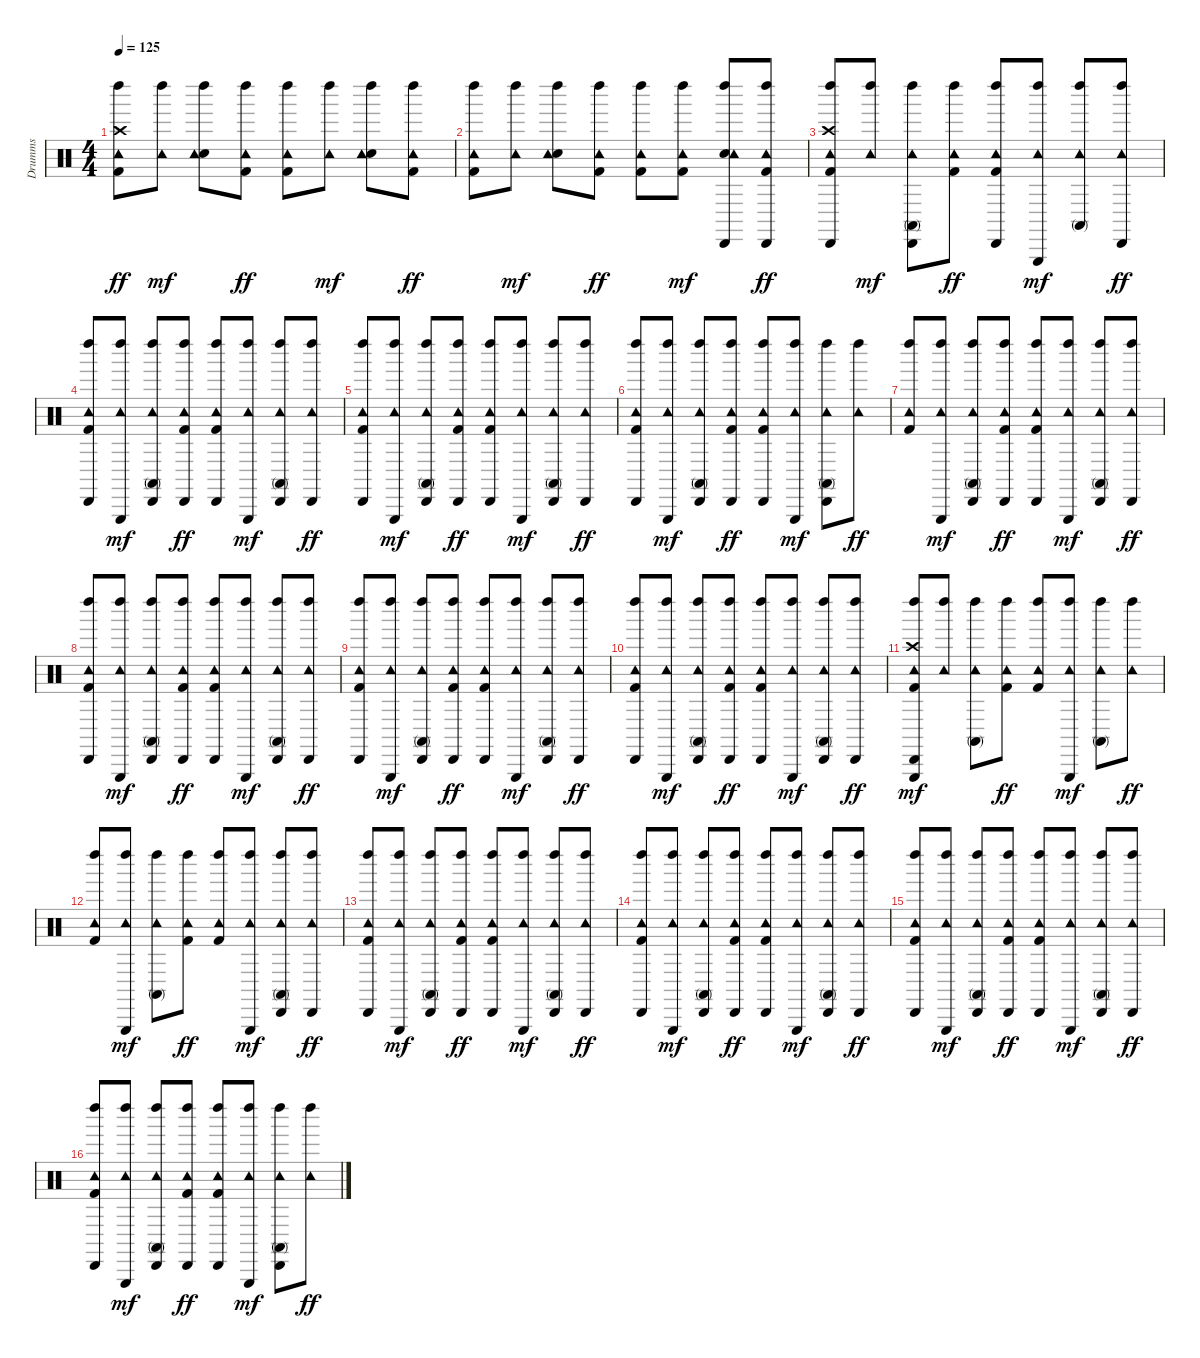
\track ("Drumms" "Drumms") {instrument percussion}
\staff {score}
\articulation defaults
\ts (4 4)
\tempo 125
\clef neutral
\ks c
("Kick (hit) 2" "Crash high (hit)" "Tambourine (hit)" "Left Maraca (hit)").8{dy ff} ("Tambourine (hit)" "Left Maraca (hit)").8{dy mf} ("Snare (hit) 2" "Tambourine (hit)" "Left Maraca (hit)").8 ("Kick (hit) 2" "Tambourine (hit)" "Left Maraca (hit)").8{dy ff} ("Kick (hit) 2" "Tambourine (hit)" "Left Maraca (hit)").8 ("Tambourine (hit)" "Left Maraca (hit)").8{dy mf} ("Snare (hit) 2" "Tambourine (hit)" "Left Maraca (hit)").8 ("Kick (hit) 2" "Tambourine (hit)" "Left Maraca (hit)").8{dy ff} |
("Kick (hit) 2" "Tambourine (hit)" "Left Maraca (hit)").8 ("Tambourine (hit)" "Left Maraca (hit)").8{dy mf} ("Snare (hit) 2" "Tambourine (hit)" "Left Maraca (hit)").8 ("Kick (hit) 2" "Tambourine (hit)" "Left Maraca (hit)").8{dy ff} ("Kick (hit) 2" "Tambourine (hit)" "Left Maraca (hit)").8 ("Kick (hit) 2" "Tambourine (hit)" "Left Maraca (hit)").8{dy mf} ("Snare (hit) 2" "Tambourine (hit)" "Cabasa (hit)" "Left Maraca (hit)").8 ("Kick (hit) 2" "Tambourine (hit)" "Cabasa (hit)" "Left Maraca (hit)").8{dy ff} |
("Kick (hit) 2" "Crash high (hit)" "Tambourine (hit)" "Cabasa (hit)" "Left Maraca (hit)").8 ("Tambourine (hit)" "Left Maraca (hit)").8{dy mf} ("Conga high (mute)" "Tambourine (hit)" "Cabasa (hit)" "Left Maraca (hit)").8 ("Kick (hit) 2" "Tambourine (hit)" "Left Maraca (hit)").8{dy ff} ("Kick (hit) 2" "Tambourine (hit)" "Cabasa (hit)" "Left Maraca (hit)").8 ("Tambourine (hit)" "Left Maraca (hit)" "Triangle (hit)").8{dy mf} ("Conga high (mute)" "Tambourine (hit)" "Left Maraca (hit)").8 ("Tambourine (hit)" "Cabasa (hit)" "Left Maraca (hit)").8{dy ff} |
("Kick (hit) 2" "Tambourine (hit)" "Cabasa (hit)" "Left Maraca (hit)").8 ("Tambourine (hit)" "Left Maraca (hit)" "Triangle (hit)").8{dy mf} ("Conga high (mute)" "Tambourine (hit)" "Cabasa (hit)" "Left Maraca (hit)").8 ("Kick (hit) 2" "Tambourine (hit)" "Cabasa (hit)" "Left Maraca (hit)").8{dy ff} ("Kick (hit) 2" "Tambourine (hit)" "Cabasa (hit)" "Left Maraca (hit)").8 ("Tambourine (hit)" "Left Maraca (hit)" "Triangle (hit)").8{dy mf} ("Conga high (mute)" "Tambourine (hit)" "Cabasa (hit)" "Left Maraca (hit)").8 ("Tambourine (hit)" "Cabasa (hit)" "Left Maraca (hit)").8{dy ff} |
("Kick (hit) 2" "Tambourine (hit)" "Cabasa (hit)" "Left Maraca (hit)").8 ("Tambourine (hit)" "Left Maraca (hit)" "Triangle (hit)").8{dy mf} ("Conga high (mute)" "Tambourine (hit)" "Cabasa (hit)" "Left Maraca (hit)").8 ("Kick (hit) 2" "Tambourine (hit)" "Cabasa (hit)" "Left Maraca (hit)").8{dy ff} ("Kick (hit) 2" "Tambourine (hit)" "Cabasa (hit)" "Left Maraca (hit)").8 ("Tambourine (hit)" "Left Maraca (hit)" "Triangle (hit)").8{dy mf} ("Conga high (mute)" "Tambourine (hit)" "Cabasa (hit)" "Left Maraca (hit)").8 ("Tambourine (hit)" "Cabasa (hit)" "Left Maraca (hit)").8{dy ff} |
("Kick (hit) 2" "Tambourine (hit)" "Cabasa (hit)" "Left Maraca (hit)").8 ("Tambourine (hit)" "Left Maraca (hit)" "Triangle (hit)").8{dy mf} ("Conga high (mute)" "Tambourine (hit)" "Cabasa (hit)" "Left Maraca (hit)").8 ("Kick (hit) 2" "Tambourine (hit)" "Cabasa (hit)" "Left Maraca (hit)").8{dy ff} ("Kick (hit) 2" "Tambourine (hit)" "Cabasa (hit)" "Left Maraca (hit)").8 ("Tambourine (hit)" "Left Maraca (hit)" "Triangle (hit)").8{dy mf} ("Conga high (mute)" "Tambourine (hit)" "Cabasa (hit)" "Left Maraca (hit)").8 ("Tambourine (hit)" "Left Maraca (hit)").8{dy ff} |
("Kick (hit) 2" "Tambourine (hit)" "Left Maraca (hit)").8 ("Tambourine (hit)" "Left Maraca (hit)" "Triangle (hit)").8{dy mf} ("Conga high (mute)" "Tambourine (hit)" "Cabasa (hit)" "Left Maraca (hit)").8 ("Kick (hit) 2" "Tambourine (hit)" "Cabasa (hit)" "Left Maraca (hit)").8{dy ff} ("Kick (hit) 2" "Tambourine (hit)" "Cabasa (hit)" "Left Maraca (hit)").8 ("Tambourine (hit)" "Left Maraca (hit)" "Triangle (hit)").8{dy mf} ("Conga high (mute)" "Tambourine (hit)" "Cabasa (hit)" "Left Maraca (hit)").8 ("Tambourine (hit)" "Cabasa (hit)" "Left Maraca (hit)").8{dy ff} |
("Kick (hit) 2" "Tambourine (hit)" "Cabasa (hit)" "Left Maraca (hit)").8 ("Tambourine (hit)" "Left Maraca (hit)" "Triangle (hit)").8{dy mf} ("Conga high (mute)" "Tambourine (hit)" "Cabasa (hit)" "Left Maraca (hit)").8 ("Kick (hit) 2" "Tambourine (hit)" "Cabasa (hit)" "Left Maraca (hit)").8{dy ff} ("Kick (hit) 2" "Tambourine (hit)" "Cabasa (hit)" "Left Maraca (hit)").8 ("Tambourine (hit)" "Left Maraca (hit)" "Triangle (hit)").8{dy mf} ("Conga high (mute)" "Tambourine (hit)" "Cabasa (hit)" "Left Maraca (hit)").8 ("Tambourine (hit)" "Cabasa (hit)" "Left Maraca (hit)").8{dy ff} |
("Kick (hit) 2" "Tambourine (hit)" "Cabasa (hit)" "Left Maraca (hit)").8 ("Tambourine (hit)" "Left Maraca (hit)" "Triangle (hit)").8{dy mf} ("Conga high (mute)" "Tambourine (hit)" "Cabasa (hit)" "Left Maraca (hit)").8 ("Kick (hit) 2" "Tambourine (hit)" "Cabasa (hit)" "Left Maraca (hit)").8{dy ff} ("Kick (hit) 2" "Tambourine (hit)" "Cabasa (hit)" "Left Maraca (hit)").8 ("Tambourine (hit)" "Left Maraca (hit)" "Triangle (hit)").8{dy mf} ("Conga high (mute)" "Tambourine (hit)" "Cabasa (hit)" "Left Maraca (hit)").8 ("Tambourine (hit)" "Cabasa (hit)" "Left Maraca (hit)").8{dy ff} |
("Kick (hit) 2" "Tambourine (hit)" "Cabasa (hit)" "Left Maraca (hit)").8 ("Tambourine (hit)" "Left Maraca (hit)" "Triangle (hit)").8{dy mf} ("Conga high (mute)" "Tambourine (hit)" "Cabasa (hit)" "Left Maraca (hit)").8 ("Kick (hit) 2" "Tambourine (hit)" "Cabasa (hit)" "Left Maraca (hit)").8{dy ff} ("Kick (hit) 2" "Tambourine (hit)" "Cabasa (hit)" "Left Maraca (hit)").8 ("Tambourine (hit)" "Left Maraca (hit)" "Triangle (hit)").8{dy mf} ("Conga high (mute)" "Tambourine (hit)" "Cabasa (hit)" "Left Maraca (hit)").8 ("Tambourine (hit)" "Cabasa (hit)" "Left Maraca (hit)").8{dy ff} |
("Kick (hit) 2" "Crash high (hit)" "Tambourine (hit)" "Cabasa (hit)" "Left Maraca (hit)" "Triangle (hit)").8{dy mf} ("Tambourine (hit)" "Left Maraca (hit)").8 ("Conga high (mute)" "Tambourine (hit)" "Left Maraca (hit)").8 ("Kick (hit) 2" "Tambourine (hit)" "Left Maraca (hit)").8{dy ff} ("Kick (hit) 2" "Tambourine (hit)" "Left Maraca (hit)").8 ("Tambourine (hit)" "Left Maraca (hit)" "Triangle (hit)").8{dy mf} ("Conga high (mute)" "Tambourine (hit)" "Left Maraca (hit)").8 ("Tambourine (hit)" "Left Maraca (hit)").8{dy ff} |
("Kick (hit) 2" "Tambourine (hit)" "Left Maraca (hit)").8 ("Tambourine (hit)" "Left Maraca (hit)" "Triangle (hit)").8{dy mf} ("Conga high (mute)" "Tambourine (hit)" "Left Maraca (hit)").8 ("Kick (hit) 2" "Tambourine (hit)" "Left Maraca (hit)").8{dy ff} ("Kick (hit) 2" "Tambourine (hit)" "Left Maraca (hit)").8 ("Tambourine (hit)" "Left Maraca (hit)" "Triangle (hit)").8{dy mf} ("Conga high (mute)" "Tambourine (hit)" "Cabasa (hit)" "Left Maraca (hit)").8 ("Tambourine (hit)" "Cabasa (hit)" "Left Maraca (hit)").8{dy ff} |
("Kick (hit) 2" "Tambourine (hit)" "Cabasa (hit)" "Left Maraca (hit)").8 ("Tambourine (hit)" "Left Maraca (hit)" "Triangle (hit)").8{dy mf} ("Conga high (mute)" "Tambourine (hit)" "Cabasa (hit)" "Left Maraca (hit)").8 ("Kick (hit) 2" "Tambourine (hit)" "Cabasa (hit)" "Left Maraca (hit)").8{dy ff} ("Kick (hit) 2" "Tambourine (hit)" "Cabasa (hit)" "Left Maraca (hit)").8 ("Tambourine (hit)" "Left Maraca (hit)" "Triangle (hit)").8{dy mf} ("Conga high (mute)" "Tambourine (hit)" "Cabasa (hit)" "Left Maraca (hit)").8 ("Tambourine (hit)" "Cabasa (hit)" "Left Maraca (hit)").8{dy ff} |
("Kick (hit) 2" "Tambourine (hit)" "Cabasa (hit)" "Left Maraca (hit)").8 ("Tambourine (hit)" "Left Maraca (hit)" "Triangle (hit)").8{dy mf} ("Conga high (mute)" "Tambourine (hit)" "Cabasa (hit)" "Left Maraca (hit)").8 ("Kick (hit) 2" "Tambourine (hit)" "Cabasa (hit)" "Left Maraca (hit)").8{dy ff} ("Kick (hit) 2" "Tambourine (hit)" "Cabasa (hit)" "Left Maraca (hit)").8 ("Tambourine (hit)" "Left Maraca (hit)" "Triangle (hit)").8{dy mf} ("Conga high (mute)" "Tambourine (hit)" "Cabasa (hit)" "Left Maraca (hit)").8 ("Tambourine (hit)" "Cabasa (hit)" "Left Maraca (hit)").8{dy ff} |
("Kick (hit) 2" "Tambourine (hit)" "Cabasa (hit)" "Left Maraca (hit)").8 ("Tambourine (hit)" "Left Maraca (hit)" "Triangle (hit)").8{dy mf} ("Conga high (mute)" "Tambourine (hit)" "Cabasa (hit)" "Left Maraca (hit)").8 ("Kick (hit) 2" "Tambourine (hit)" "Cabasa (hit)" "Left Maraca (hit)").8{dy ff} ("Kick (hit) 2" "Tambourine (hit)" "Cabasa (hit)" "Left Maraca (hit)").8 ("Tambourine (hit)" "Left Maraca (hit)" "Triangle (hit)").8{dy mf} ("Conga high (mute)" "Tambourine (hit)" "Cabasa (hit)" "Left Maraca (hit)").8 ("Tambourine (hit)" "Cabasa (hit)" "Left Maraca (hit)").8{dy ff} |
("Kick (hit) 2" "Tambourine (hit)" "Cabasa (hit)" "Left Maraca (hit)").8 ("Tambourine (hit)" "Left Maraca (hit)" "Triangle (hit)").8{dy mf} ("Conga high (mute)" "Tambourine (hit)" "Cabasa (hit)" "Left Maraca (hit)").8 ("Kick (hit) 2" "Tambourine (hit)" "Cabasa (hit)" "Left Maraca (hit)").8{dy ff} ("Kick (hit) 2" "Tambourine (hit)" "Cabasa (hit)" "Left Maraca (hit)").8 ("Tambourine (hit)" "Left Maraca (hit)" "Triangle (hit)").8{dy mf} ("Conga high (mute)" "Tambourine (hit)" "Cabasa (hit)" "Left Maraca (hit)").8 ("Tambourine (hit)" "Left Maraca (hit)").8{dy ff}
